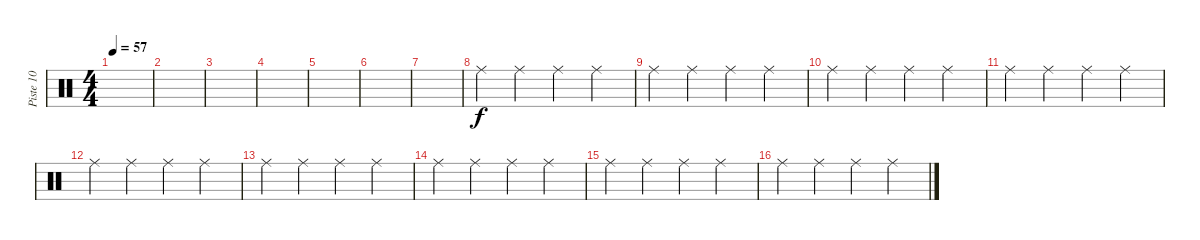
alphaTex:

\track ("Piste 10" "Piste 10") {instrument percussion}
\staff {score}
\articulation defaults
\ts (4 4)
\tempo 57
\clef neutral
\ks c
|
|
|
|
|
|
|
"Ride (middle)".4 "Ride (middle)".4 "Ride (middle)".4 "Ride (middle)".4 |
"Ride (middle)".4 "Ride (middle)".4 "Ride (middle)".4 "Ride (middle)".4 |
"Ride (middle)".4 "Ride (middle)".4 "Ride (middle)".4 "Ride (middle)".4 |
"Ride (middle)".4 "Ride (middle)".4 "Ride (middle)".4 "Ride (middle)".4 |
"Ride (middle)".4 "Ride (middle)".4 "Ride (middle)".4 "Ride (middle)".4 |
"Ride (middle)".4 "Ride (middle)".4 "Ride (middle)".4 "Ride (middle)".4 |
"Ride (middle)".4 "Ride (middle)".4 "Ride (middle)".4 "Ride (middle)".4 |
"Ride (middle)".4 "Ride (middle)".4 "Ride (middle)".4 "Ride (middle)".4 |
"Ride (middle)".4 "Ride (middle)".4 "Ride (middle)".4 "Ride (middle)".4
